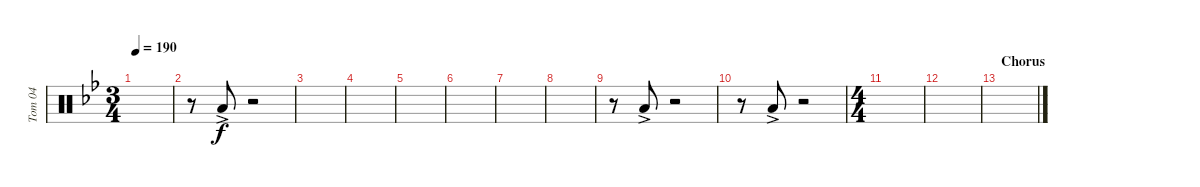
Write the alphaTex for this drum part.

\track ("Tom 04" "Tom 04") {instrument percussion}
\staff {score}
\articulation defaults
\ts (3 4)
\tempo 190
\clef neutral
\ks bb
|
r.8 "Low Tom (hit)"{ac}.8 r.2 |
|
|
|
|
|
|
r.8 "Low Tom (hit)"{ac}.8 r.2 |
r.8 "Low Tom (hit)"{ac}.8 r.2 |
\ts (4 4)
|
|
\section ("" "Chorus")
